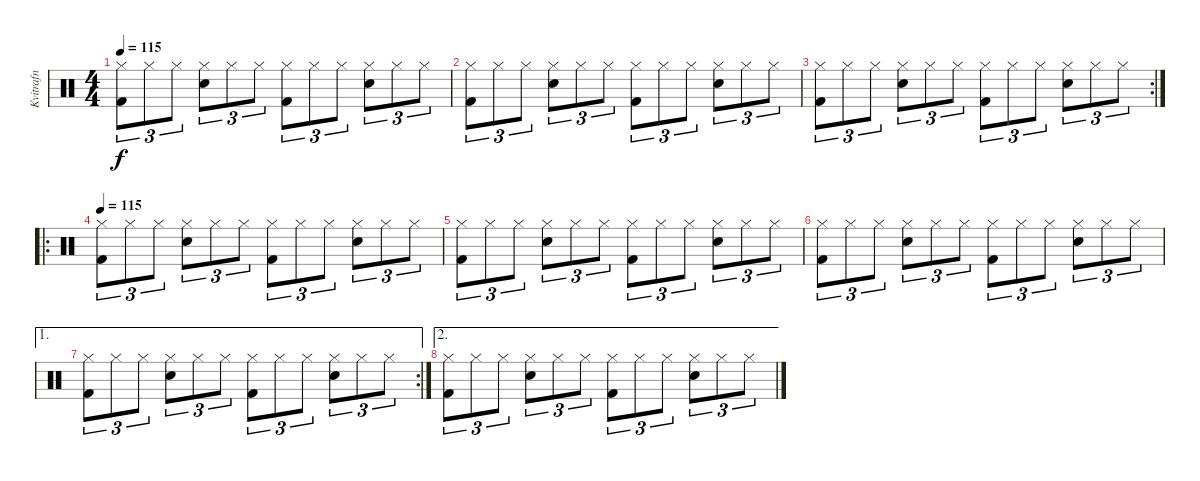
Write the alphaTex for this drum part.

\track ("Kvitrafn" "Kvitrafn") {instrument percussion}
\staff {score}
\articulation defaults
\ts (4 4)
\tempo 115
\clef neutral
\ks c
("Hi-Hat (closed)" "Kick (hit) 2").8{tu (3 2) dy f} "Hi-Hat (closed)".8{tu (3 2)} "Hi-Hat (closed)".8{tu (3 2)} ("Hi-Hat (closed)" "Snare (hit) 2").8{tu (3 2)} "Hi-Hat (closed)".8{tu (3 2)} "Hi-Hat (closed)".8{tu (3 2)} ("Hi-Hat (closed)" "Kick (hit) 2").8{tu (3 2)} "Hi-Hat (closed)".8{tu (3 2)} "Hi-Hat (closed)".8{tu (3 2)} ("Hi-Hat (closed)" "Snare (hit) 2").8{tu (3 2)} "Hi-Hat (closed)".8{tu (3 2)} "Hi-Hat (closed)".8{tu (3 2)} |
("Hi-Hat (closed)" "Kick (hit) 2").8{tu (3 2)} "Hi-Hat (closed)".8{tu (3 2)} "Hi-Hat (closed)".8{tu (3 2)} ("Hi-Hat (closed)" "Snare (hit) 2").8{tu (3 2)} "Hi-Hat (closed)".8{tu (3 2)} "Hi-Hat (closed)".8{tu (3 2)} ("Hi-Hat (closed)" "Kick (hit) 2").8{tu (3 2)} "Hi-Hat (closed)".8{tu (3 2)} "Hi-Hat (closed)".8{tu (3 2)} ("Hi-Hat (closed)" "Snare (hit) 2").8{tu (3 2)} "Hi-Hat (closed)".8{tu (3 2)} "Hi-Hat (closed)".8{tu (3 2)} |
\rc 2
("Hi-Hat (closed)" "Kick (hit) 2").8{tu (3 2)} "Hi-Hat (closed)".8{tu (3 2)} "Hi-Hat (closed)".8{tu (3 2)} ("Hi-Hat (closed)" "Snare (hit) 2").8{tu (3 2)} "Hi-Hat (closed)".8{tu (3 2)} "Hi-Hat (closed)".8{tu (3 2)} ("Hi-Hat (closed)" "Kick (hit) 2").8{tu (3 2)} "Hi-Hat (closed)".8{tu (3 2)} "Hi-Hat (closed)".8{tu (3 2)} ("Hi-Hat (closed)" "Snare (hit) 2").8{tu (3 2)} "Hi-Hat (closed)".8{tu (3 2)} "Hi-Hat (closed)".8{tu (3 2)} |
\ro
\tempo 115
("Hi-Hat (closed)" "Kick (hit) 2").8{tu (3 2)} "Hi-Hat (closed)".8{tu (3 2)} "Hi-Hat (closed)".8{tu (3 2)} ("Hi-Hat (closed)" "Snare (hit) 2").8{tu (3 2)} "Hi-Hat (closed)".8{tu (3 2)} "Hi-Hat (closed)".8{tu (3 2)} ("Hi-Hat (closed)" "Kick (hit) 2").8{tu (3 2)} "Hi-Hat (closed)".8{tu (3 2)} "Hi-Hat (closed)".8{tu (3 2)} ("Hi-Hat (closed)" "Snare (hit) 2").8{tu (3 2)} "Hi-Hat (closed)".8{tu (3 2)} "Hi-Hat (closed)".8{tu (3 2)} |
("Hi-Hat (closed)" "Kick (hit) 2").8{tu (3 2)} "Hi-Hat (closed)".8{tu (3 2)} "Hi-Hat (closed)".8{tu (3 2)} ("Hi-Hat (closed)" "Snare (hit) 2").8{tu (3 2)} "Hi-Hat (closed)".8{tu (3 2)} "Hi-Hat (closed)".8{tu (3 2)} ("Hi-Hat (closed)" "Kick (hit) 2").8{tu (3 2)} "Hi-Hat (closed)".8{tu (3 2)} "Hi-Hat (closed)".8{tu (3 2)} ("Hi-Hat (closed)" "Snare (hit) 2").8{tu (3 2)} "Hi-Hat (closed)".8{tu (3 2)} "Hi-Hat (closed)".8{tu (3 2)} |
("Hi-Hat (closed)" "Kick (hit) 2").8{tu (3 2)} "Hi-Hat (closed)".8{tu (3 2)} "Hi-Hat (closed)".8{tu (3 2)} ("Hi-Hat (closed)" "Snare (hit) 2").8{tu (3 2)} "Hi-Hat (closed)".8{tu (3 2)} "Hi-Hat (closed)".8{tu (3 2)} ("Hi-Hat (closed)" "Kick (hit) 2").8{tu (3 2)} "Hi-Hat (closed)".8{tu (3 2)} "Hi-Hat (closed)".8{tu (3 2)} ("Hi-Hat (closed)" "Snare (hit) 2").8{tu (3 2)} "Hi-Hat (closed)".8{tu (3 2)} "Hi-Hat (closed)".8{tu (3 2)} |
\ae 1
\rc 2
("Hi-Hat (closed)" "Kick (hit) 2").8{tu (3 2)} "Hi-Hat (closed)".8{tu (3 2)} "Hi-Hat (closed)".8{tu (3 2)} ("Hi-Hat (closed)" "Snare (hit) 2").8{tu (3 2)} "Hi-Hat (closed)".8{tu (3 2)} "Hi-Hat (closed)".8{tu (3 2)} ("Hi-Hat (closed)" "Kick (hit) 2").8{tu (3 2)} "Hi-Hat (closed)".8{tu (3 2)} "Hi-Hat (closed)".8{tu (3 2)} ("Hi-Hat (closed)" "Snare (hit) 2").8{tu (3 2)} "Hi-Hat (closed)".8{tu (3 2)} "Hi-Hat (closed)".8{tu (3 2)} |
\ae 2
("Hi-Hat (closed)" "Kick (hit) 2").8{tu (3 2)} "Hi-Hat (closed)".8{tu (3 2)} "Hi-Hat (closed)".8{tu (3 2)} ("Hi-Hat (closed)" "Snare (hit) 2").8{tu (3 2)} "Hi-Hat (closed)".8{tu (3 2)} "Hi-Hat (closed)".8{tu (3 2)} ("Hi-Hat (closed)" "Kick (hit) 2").8{tu (3 2)} "Hi-Hat (closed)".8{tu (3 2)} "Hi-Hat (closed)".8{tu (3 2)} ("Hi-Hat (closed)" "Snare (hit) 2").8{tu (3 2)} "Hi-Hat (closed)".8{tu (3 2)} "Hi-Hat (closed)".8{tu (3 2)}
